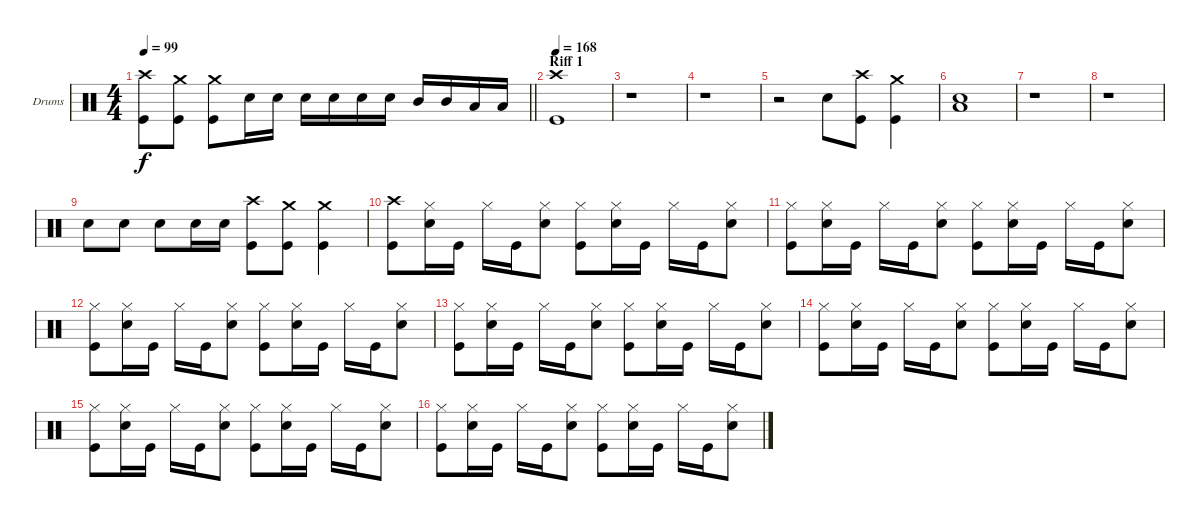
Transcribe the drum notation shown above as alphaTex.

\bracketExtendMode groupsimilarinstruments
\firstSystemTrackNameOrientation horizontal
\otherSystemsTrackNameOrientation horizontal
\track ("Drumkit" "Drums") {instrument percussion}
\staff {score}
\articulation defaults
\ts (4 4)
\tempo 99
\clef neutral
\barLineRight lightlight
\ks c
("Crash high (hit)" "Kick (hit)").8{dy f} ("Crash medium (hit)" "Kick (hit)").8 ("Crash medium (hit)" "Kick (hit)").8 "Snare (hit) 2".16 "Snare (hit) 2".16 "Snare (hit) 2".16 "Snare (hit) 2".16 "Snare (hit) 2".16 "Snare (hit) 2".16 "Mid Tom (hit)".16 "Mid Tom (hit)".16 "Low Tom (hit)".16 "Low Tom (hit)".16 |
\section ("" "Riff 1")
\tempo 168
("Crash high (hit)" "Kick (hit)").1 |
r.1 |
r.1 |
r.2 "Snare (hit) 2".8 ("Crash high (hit)" "Kick (hit)").8 ("Crash medium (hit)" "Kick (hit)").4 |
("Snare (hit) 2" "Low Tom (hit)").1 |
r.1 |
r.1 |
"Snare (hit) 2".8 "Snare (hit) 2".8 "Snare (hit) 2".8 "Snare (hit) 2".16 "Snare (hit) 2".16 ("Crash high (hit)" "Kick (hit)").8 ("Crash medium (hit)" "Kick (hit)").8 ("Crash medium (hit)" "Kick (hit)").4 |
("Crash high (hit)" "Kick (hit)").8 ("Hi-Hat (closed)" "Snare (hit) 2").16 "Kick (hit)".16 "Hi-Hat (closed)".16 "Kick (hit)".16 ("Hi-Hat (closed)" "Snare (hit) 2").8 ("Hi-Hat (closed)" "Kick (hit)").8 ("Hi-Hat (closed)" "Snare (hit) 2").16 "Kick (hit)".16 "Hi-Hat (closed)".16 "Kick (hit)".16 ("Hi-Hat (closed)" "Snare (hit) 2").8 |
("Hi-Hat (closed)" "Kick (hit)").8 ("Hi-Hat (closed)" "Snare (hit) 2").16 "Kick (hit)".16 "Hi-Hat (closed)".16 "Kick (hit)".16 ("Hi-Hat (closed)" "Snare (hit) 2").8 ("Hi-Hat (closed)" "Kick (hit)").8 ("Hi-Hat (closed)" "Snare (hit) 2").16 "Kick (hit)".16 "Hi-Hat (closed)".16 "Kick (hit)".16 ("Hi-Hat (closed)" "Snare (hit) 2").8 |
("Hi-Hat (closed)" "Kick (hit)").8 ("Hi-Hat (closed)" "Snare (hit) 2").16 "Kick (hit)".16 "Hi-Hat (closed)".16 "Kick (hit)".16 ("Hi-Hat (closed)" "Snare (hit) 2").8 ("Hi-Hat (closed)" "Kick (hit)").8 ("Hi-Hat (closed)" "Snare (hit) 2").16 "Kick (hit)".16 "Hi-Hat (closed)".16 "Kick (hit)".16 ("Hi-Hat (closed)" "Snare (hit) 2").8 |
("Hi-Hat (closed)" "Kick (hit)").8 ("Hi-Hat (closed)" "Snare (hit) 2").16 "Kick (hit)".16 "Hi-Hat (closed)".16 "Kick (hit)".16 ("Hi-Hat (closed)" "Snare (hit) 2").8 ("Hi-Hat (closed)" "Kick (hit)").8 ("Hi-Hat (closed)" "Snare (hit) 2").16 "Kick (hit)".16 "Hi-Hat (closed)".16 "Kick (hit)".16 ("Hi-Hat (closed)" "Snare (hit) 2").8 |
("Hi-Hat (closed)" "Kick (hit)").8 ("Hi-Hat (closed)" "Snare (hit) 2").16 "Kick (hit)".16 "Hi-Hat (closed)".16 "Kick (hit)".16 ("Hi-Hat (closed)" "Snare (hit) 2").8 ("Hi-Hat (closed)" "Kick (hit)").8 ("Hi-Hat (closed)" "Snare (hit) 2").16 "Kick (hit)".16 "Hi-Hat (closed)".16 "Kick (hit)".16 ("Hi-Hat (closed)" "Snare (hit) 2").8 |
("Hi-Hat (closed)" "Kick (hit)").8 ("Hi-Hat (closed)" "Snare (hit) 2").16 "Kick (hit)".16 "Hi-Hat (closed)".16 "Kick (hit)".16 ("Hi-Hat (closed)" "Snare (hit) 2").8 ("Hi-Hat (closed)" "Kick (hit)").8 ("Hi-Hat (closed)" "Snare (hit) 2").16 "Kick (hit)".16 "Hi-Hat (closed)".16 "Kick (hit)".16 ("Hi-Hat (closed)" "Snare (hit) 2").8 |
("Hi-Hat (closed)" "Kick (hit)").8 ("Hi-Hat (closed)" "Snare (hit) 2").16 "Kick (hit)".16 "Hi-Hat (closed)".16 "Kick (hit)".16 ("Hi-Hat (closed)" "Snare (hit) 2").8 ("Hi-Hat (closed)" "Kick (hit)").8 ("Hi-Hat (closed)" "Snare (hit) 2").16 "Kick (hit)".16 "Hi-Hat (closed)".16 "Kick (hit)".16 ("Hi-Hat (closed)" "Snare (hit) 2").8
